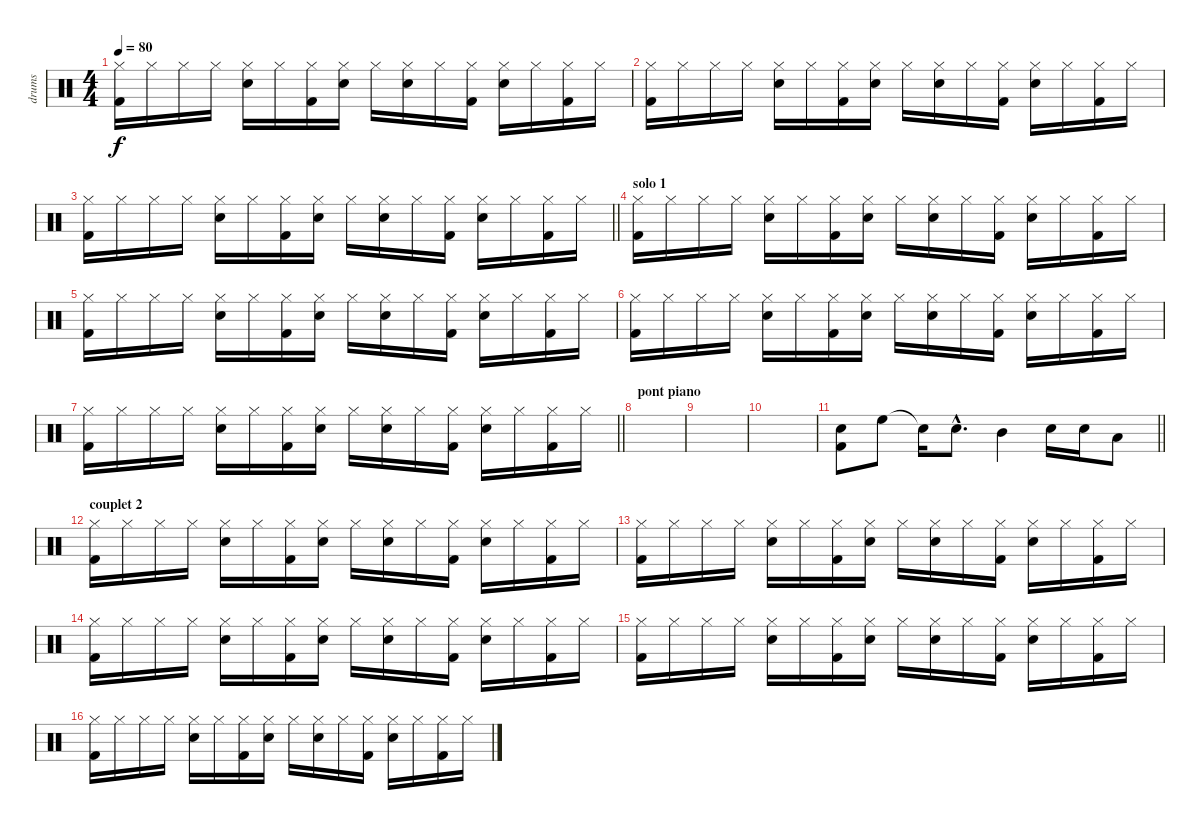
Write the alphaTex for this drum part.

\track ("drums" "drums") {instrument percussion}
\staff {score}
\articulation defaults
\ts (4 4)
\tempo 80
\clef neutral
\ks c
("Hi-Hat (closed)" "Kick (hit) 2").16{dy f} "Hi-Hat (closed)".16 "Hi-Hat (closed)".16 "Hi-Hat (closed)".16 ("Hi-Hat (closed)" "Snare (hit) 2").16 "Hi-Hat (closed)".16 ("Hi-Hat (closed)" "Kick (hit) 2").16 ("Hi-Hat (closed)" "Snare (hit) 2").16 "Hi-Hat (closed)".16 ("Hi-Hat (closed)" "Snare (hit) 2").16 "Hi-Hat (closed)".16 ("Hi-Hat (closed)" "Kick (hit) 2").16 ("Hi-Hat (closed)" "Snare (hit) 2").16 "Hi-Hat (closed)".16 ("Hi-Hat (closed)" "Kick (hit) 2").16 "Hi-Hat (closed)".16 |
("Hi-Hat (closed)" "Kick (hit) 2").16 "Hi-Hat (closed)".16 "Hi-Hat (closed)".16 "Hi-Hat (closed)".16 ("Hi-Hat (closed)" "Snare (hit) 2").16 "Hi-Hat (closed)".16 ("Hi-Hat (closed)" "Kick (hit) 2").16 ("Hi-Hat (closed)" "Snare (hit) 2").16 "Hi-Hat (closed)".16 ("Hi-Hat (closed)" "Snare (hit) 2").16 "Hi-Hat (closed)".16 ("Hi-Hat (closed)" "Kick (hit) 2").16 ("Hi-Hat (closed)" "Snare (hit) 2").16 "Hi-Hat (closed)".16 ("Hi-Hat (closed)" "Kick (hit) 2").16 "Hi-Hat (closed)".16 |
\barLineRight lightlight
("Hi-Hat (closed)" "Kick (hit) 2").16 "Hi-Hat (closed)".16 "Hi-Hat (closed)".16 "Hi-Hat (closed)".16 ("Hi-Hat (closed)" "Snare (hit) 2").16 "Hi-Hat (closed)".16 ("Hi-Hat (closed)" "Kick (hit) 2").16 ("Hi-Hat (closed)" "Snare (hit) 2").16 "Hi-Hat (closed)".16 ("Hi-Hat (closed)" "Snare (hit) 2").16 "Hi-Hat (closed)".16 ("Hi-Hat (closed)" "Kick (hit) 2").16 ("Hi-Hat (closed)" "Snare (hit) 2").16 "Hi-Hat (closed)".16 ("Hi-Hat (closed)" "Kick (hit) 2").16 "Hi-Hat (closed)".16 |
\section ("" "solo 1")
("Hi-Hat (closed)" "Kick (hit) 2").16 "Hi-Hat (closed)".16 "Hi-Hat (closed)".16 "Hi-Hat (closed)".16 ("Hi-Hat (closed)" "Snare (hit) 2").16 "Hi-Hat (closed)".16 ("Hi-Hat (closed)" "Kick (hit) 2").16 ("Hi-Hat (closed)" "Snare (hit) 2").16 "Hi-Hat (closed)".16 ("Hi-Hat (closed)" "Snare (hit) 2").16 "Hi-Hat (closed)".16 ("Hi-Hat (closed)" "Kick (hit) 2").16 ("Hi-Hat (closed)" "Snare (hit) 2").16 "Hi-Hat (closed)".16 ("Hi-Hat (closed)" "Kick (hit) 2").16 "Hi-Hat (closed)".16 |
("Hi-Hat (closed)" "Kick (hit) 2").16 "Hi-Hat (closed)".16 "Hi-Hat (closed)".16 "Hi-Hat (closed)".16 ("Hi-Hat (closed)" "Snare (hit) 2").16 "Hi-Hat (closed)".16 ("Hi-Hat (closed)" "Kick (hit) 2").16 ("Hi-Hat (closed)" "Snare (hit) 2").16 "Hi-Hat (closed)".16 ("Hi-Hat (closed)" "Snare (hit) 2").16 "Hi-Hat (closed)".16 ("Hi-Hat (closed)" "Kick (hit) 2").16 ("Hi-Hat (closed)" "Snare (hit) 2").16 "Hi-Hat (closed)".16 ("Hi-Hat (closed)" "Kick (hit) 2").16 "Hi-Hat (closed)".16 |
("Hi-Hat (closed)" "Kick (hit) 2").16 "Hi-Hat (closed)".16 "Hi-Hat (closed)".16 "Hi-Hat (closed)".16 ("Hi-Hat (closed)" "Snare (hit) 2").16 "Hi-Hat (closed)".16 ("Hi-Hat (closed)" "Kick (hit) 2").16 ("Hi-Hat (closed)" "Snare (hit) 2").16 "Hi-Hat (closed)".16 ("Hi-Hat (closed)" "Snare (hit) 2").16 "Hi-Hat (closed)".16 ("Hi-Hat (closed)" "Kick (hit) 2").16 ("Hi-Hat (closed)" "Snare (hit) 2").16 "Hi-Hat (closed)".16 ("Hi-Hat (closed)" "Kick (hit) 2").16 "Hi-Hat (closed)".16 |
\barLineRight lightlight
("Hi-Hat (closed)" "Kick (hit) 2").16 "Hi-Hat (closed)".16 "Hi-Hat (closed)".16 "Hi-Hat (closed)".16 ("Hi-Hat (closed)" "Snare (hit) 2").16 "Hi-Hat (closed)".16 ("Hi-Hat (closed)" "Kick (hit) 2").16 ("Hi-Hat (closed)" "Snare (hit) 2").16 "Hi-Hat (closed)".16 ("Hi-Hat (closed)" "Snare (hit) 2").16 "Hi-Hat (closed)".16 ("Hi-Hat (closed)" "Kick (hit) 2").16 ("Hi-Hat (closed)" "Snare (hit) 2").16 "Hi-Hat (closed)".16 ("Hi-Hat (closed)" "Kick (hit) 2").16 "Hi-Hat (closed)".16 |
\section ("" "pont piano")
|
|
|
\barLineRight lightlight
("Snare (hit) 2" "Kick (hit) 2").8 "High Floor Tom (hit)".8 "Snare (hit)"{t}.16 "Snare (hit) 2"{hac}.8{d} "Mid Tom (hit)".4 "Snare (hit) 2".16 "Snare (hit) 2".16 "Low Tom (hit)".8 |
\section ("" "couplet 2")
("Hi-Hat (closed)" "Kick (hit) 2").16 "Hi-Hat (closed)".16 "Hi-Hat (closed)".16 "Hi-Hat (closed)".16 ("Hi-Hat (closed)" "Snare (hit) 2").16 "Hi-Hat (closed)".16 ("Hi-Hat (closed)" "Kick (hit) 2").16 ("Hi-Hat (closed)" "Snare (hit) 2").16 "Hi-Hat (closed)".16 ("Hi-Hat (closed)" "Snare (hit) 2").16 "Hi-Hat (closed)".16 ("Hi-Hat (closed)" "Kick (hit) 2").16 ("Hi-Hat (closed)" "Snare (hit) 2").16 "Hi-Hat (closed)".16 ("Hi-Hat (closed)" "Kick (hit) 2").16 "Hi-Hat (closed)".16 |
("Hi-Hat (closed)" "Kick (hit) 2").16 "Hi-Hat (closed)".16 "Hi-Hat (closed)".16 "Hi-Hat (closed)".16 ("Hi-Hat (closed)" "Snare (hit) 2").16 "Hi-Hat (closed)".16 ("Hi-Hat (closed)" "Kick (hit) 2").16 ("Hi-Hat (closed)" "Snare (hit) 2").16 "Hi-Hat (closed)".16 ("Hi-Hat (closed)" "Snare (hit) 2").16 "Hi-Hat (closed)".16 ("Hi-Hat (closed)" "Kick (hit) 2").16 ("Hi-Hat (closed)" "Snare (hit) 2").16 "Hi-Hat (closed)".16 ("Hi-Hat (closed)" "Kick (hit) 2").16 "Hi-Hat (closed)".16 |
("Hi-Hat (closed)" "Kick (hit) 2").16 "Hi-Hat (closed)".16 "Hi-Hat (closed)".16 "Hi-Hat (closed)".16 ("Hi-Hat (closed)" "Snare (hit) 2").16 "Hi-Hat (closed)".16 ("Hi-Hat (closed)" "Kick (hit) 2").16 ("Hi-Hat (closed)" "Snare (hit) 2").16 "Hi-Hat (closed)".16 ("Hi-Hat (closed)" "Snare (hit) 2").16 "Hi-Hat (closed)".16 ("Hi-Hat (closed)" "Kick (hit) 2").16 ("Hi-Hat (closed)" "Snare (hit) 2").16 "Hi-Hat (closed)".16 ("Hi-Hat (closed)" "Kick (hit) 2").16 "Hi-Hat (closed)".16 |
("Hi-Hat (closed)" "Kick (hit) 2").16 "Hi-Hat (closed)".16 "Hi-Hat (closed)".16 "Hi-Hat (closed)".16 ("Hi-Hat (closed)" "Snare (hit) 2").16 "Hi-Hat (closed)".16 ("Hi-Hat (closed)" "Kick (hit) 2").16 ("Hi-Hat (closed)" "Snare (hit) 2").16 "Hi-Hat (closed)".16 ("Hi-Hat (closed)" "Snare (hit) 2").16 "Hi-Hat (closed)".16 ("Hi-Hat (closed)" "Kick (hit) 2").16 ("Hi-Hat (closed)" "Snare (hit) 2").16 "Hi-Hat (closed)".16 ("Hi-Hat (closed)" "Kick (hit) 2").16 "Hi-Hat (closed)".16 |
("Hi-Hat (closed)" "Kick (hit) 2").16 "Hi-Hat (closed)".16 "Hi-Hat (closed)".16 "Hi-Hat (closed)".16 ("Hi-Hat (closed)" "Snare (hit) 2").16 "Hi-Hat (closed)".16 ("Hi-Hat (closed)" "Kick (hit) 2").16 ("Hi-Hat (closed)" "Snare (hit) 2").16 "Hi-Hat (closed)".16 ("Hi-Hat (closed)" "Snare (hit) 2").16 "Hi-Hat (closed)".16 ("Hi-Hat (closed)" "Kick (hit) 2").16 ("Hi-Hat (closed)" "Snare (hit) 2").16 "Hi-Hat (closed)".16 ("Hi-Hat (closed)" "Kick (hit) 2").16 "Hi-Hat (closed)".16
